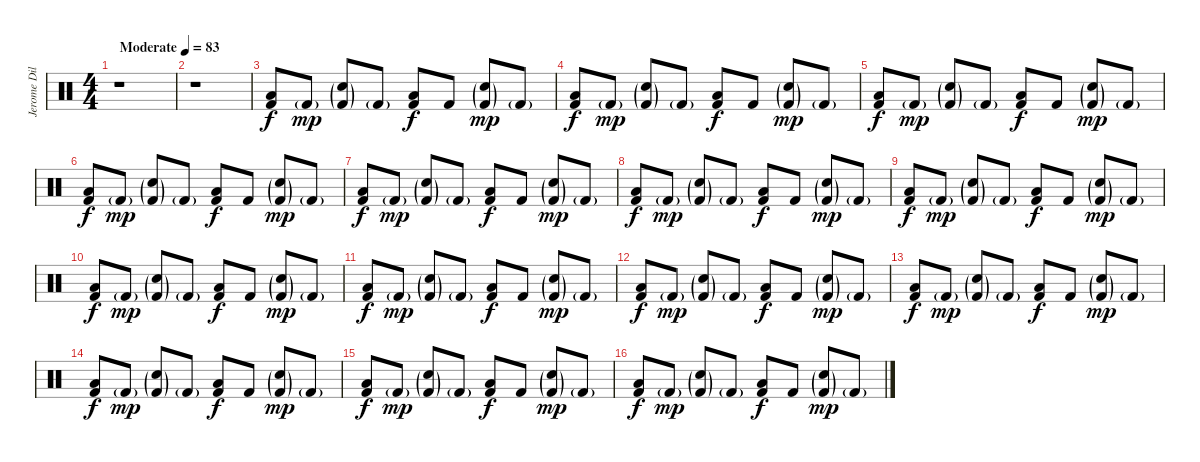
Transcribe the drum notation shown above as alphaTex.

\track ("Jerome Dillon" "Jerome Dil") {instrument percussion}
\staff {score}
\articulation defaults
\ts (4 4)
\tempo (83 "Moderate")
\clef neutral
\ks c
r.1{dy f} |
r.1 |
("Low Floor Tom (hit)" "Kick (hit) 2").8 "Kick (hit) 2"{g}.8{dy mp} ("Electric Snare (hit)"{g} "Kick (hit) 2"{g}).8 "Kick (hit) 2"{g}.8 ("Low Floor Tom (hit)" "Kick (hit) 2").8{dy f} "Kick (hit) 2".8 ("Electric Snare (hit)"{g} "Kick (hit) 2"{g}).8{dy mp} "Kick (hit) 2"{g}.8 |
("Low Floor Tom (hit)" "Kick (hit) 2").8{dy f} "Kick (hit) 2"{g}.8{dy mp} ("Electric Snare (hit)"{g} "Kick (hit) 2"{g}).8 "Kick (hit) 2"{g}.8 ("Low Floor Tom (hit)" "Kick (hit) 2").8{dy f} "Kick (hit) 2".8 ("Electric Snare (hit)"{g} "Kick (hit) 2"{g}).8{dy mp} "Kick (hit) 2"{g}.8 |
("Low Floor Tom (hit)" "Kick (hit) 2").8{dy f} "Kick (hit) 2"{g}.8{dy mp} ("Electric Snare (hit)"{g} "Kick (hit) 2"{g}).8 "Kick (hit) 2"{g}.8 ("Low Floor Tom (hit)" "Kick (hit) 2").8{dy f} "Kick (hit) 2".8 ("Electric Snare (hit)"{g} "Kick (hit) 2"{g}).8{dy mp} "Kick (hit) 2"{g}.8 |
("Low Floor Tom (hit)" "Kick (hit) 2").8{dy f} "Kick (hit) 2"{g}.8{dy mp} ("Electric Snare (hit)"{g} "Kick (hit) 2"{g}).8 "Kick (hit) 2"{g}.8 ("Low Floor Tom (hit)" "Kick (hit) 2").8{dy f} "Kick (hit) 2".8 ("Electric Snare (hit)"{g} "Kick (hit) 2"{g}).8{dy mp} "Kick (hit) 2"{g}.8 |
("Low Floor Tom (hit)" "Kick (hit) 2").8{dy f} "Kick (hit) 2"{g}.8{dy mp} ("Electric Snare (hit)"{g} "Kick (hit) 2"{g}).8 "Kick (hit) 2"{g}.8 ("Low Floor Tom (hit)" "Kick (hit) 2").8{dy f} "Kick (hit) 2".8 ("Electric Snare (hit)"{g} "Kick (hit) 2"{g}).8{dy mp} "Kick (hit) 2"{g}.8 |
("Low Floor Tom (hit)" "Kick (hit) 2").8{dy f} "Kick (hit) 2"{g}.8{dy mp} ("Electric Snare (hit)"{g} "Kick (hit) 2"{g}).8 "Kick (hit) 2"{g}.8 ("Low Floor Tom (hit)" "Kick (hit) 2").8{dy f} "Kick (hit) 2".8 ("Electric Snare (hit)"{g} "Kick (hit) 2"{g}).8{dy mp} "Kick (hit) 2"{g}.8 |
("Low Floor Tom (hit)" "Kick (hit) 2").8{dy f} "Kick (hit) 2"{g}.8{dy mp} ("Electric Snare (hit)"{g} "Kick (hit) 2"{g}).8 "Kick (hit) 2"{g}.8 ("Low Floor Tom (hit)" "Kick (hit) 2").8{dy f} "Kick (hit) 2".8 ("Electric Snare (hit)"{g} "Kick (hit) 2"{g}).8{dy mp} "Kick (hit) 2"{g}.8 |
("Low Floor Tom (hit)" "Kick (hit) 2").8{dy f} "Kick (hit) 2"{g}.8{dy mp} ("Electric Snare (hit)"{g} "Kick (hit) 2"{g}).8 "Kick (hit) 2"{g}.8 ("Low Floor Tom (hit)" "Kick (hit) 2").8{dy f} "Kick (hit) 2".8 ("Electric Snare (hit)"{g} "Kick (hit) 2"{g}).8{dy mp} "Kick (hit) 2"{g}.8 |
("Low Floor Tom (hit)" "Kick (hit) 2").8{dy f} "Kick (hit) 2"{g}.8{dy mp} ("Electric Snare (hit)"{g} "Kick (hit) 2"{g}).8 "Kick (hit) 2"{g}.8 ("Low Floor Tom (hit)" "Kick (hit) 2").8{dy f} "Kick (hit) 2".8 ("Electric Snare (hit)"{g} "Kick (hit) 2"{g}).8{dy mp} "Kick (hit) 2"{g}.8 |
("Low Floor Tom (hit)" "Kick (hit) 2").8{dy f} "Kick (hit) 2"{g}.8{dy mp} ("Electric Snare (hit)"{g} "Kick (hit) 2"{g}).8 "Kick (hit) 2"{g}.8 ("Low Floor Tom (hit)" "Kick (hit) 2").8{dy f} "Kick (hit) 2".8 ("Electric Snare (hit)"{g} "Kick (hit) 2"{g}).8{dy mp} "Kick (hit) 2"{g}.8 |
("Low Floor Tom (hit)" "Kick (hit) 2").8{dy f} "Kick (hit) 2"{g}.8{dy mp} ("Electric Snare (hit)"{g} "Kick (hit) 2"{g}).8 "Kick (hit) 2"{g}.8 ("Low Floor Tom (hit)" "Kick (hit) 2").8{dy f} "Kick (hit) 2".8 ("Electric Snare (hit)"{g} "Kick (hit) 2"{g}).8{dy mp} "Kick (hit) 2"{g}.8 |
("Low Floor Tom (hit)" "Kick (hit) 2").8{dy f} "Kick (hit) 2"{g}.8{dy mp} ("Electric Snare (hit)"{g} "Kick (hit) 2"{g}).8 "Kick (hit) 2"{g}.8 ("Low Floor Tom (hit)" "Kick (hit) 2").8{dy f} "Kick (hit) 2".8 ("Electric Snare (hit)"{g} "Kick (hit) 2"{g}).8{dy mp} "Kick (hit) 2"{g}.8 |
("Low Floor Tom (hit)" "Kick (hit) 2").8{dy f} "Kick (hit) 2"{g}.8{dy mp} ("Electric Snare (hit)"{g} "Kick (hit) 2"{g}).8 "Kick (hit) 2"{g}.8 ("Low Floor Tom (hit)" "Kick (hit) 2").8{dy f} "Kick (hit) 2".8 ("Electric Snare (hit)"{g} "Kick (hit) 2"{g}).8{dy mp} "Kick (hit) 2"{g}.8 |
("Low Floor Tom (hit)" "Kick (hit) 2").8{dy f} "Kick (hit) 2"{g}.8{dy mp} ("Electric Snare (hit)"{g} "Kick (hit) 2"{g}).8 "Kick (hit) 2"{g}.8 ("Low Floor Tom (hit)" "Kick (hit) 2").8{dy f} "Kick (hit) 2".8 ("Electric Snare (hit)"{g} "Kick (hit) 2"{g}).8{dy mp} "Kick (hit) 2"{g}.8
